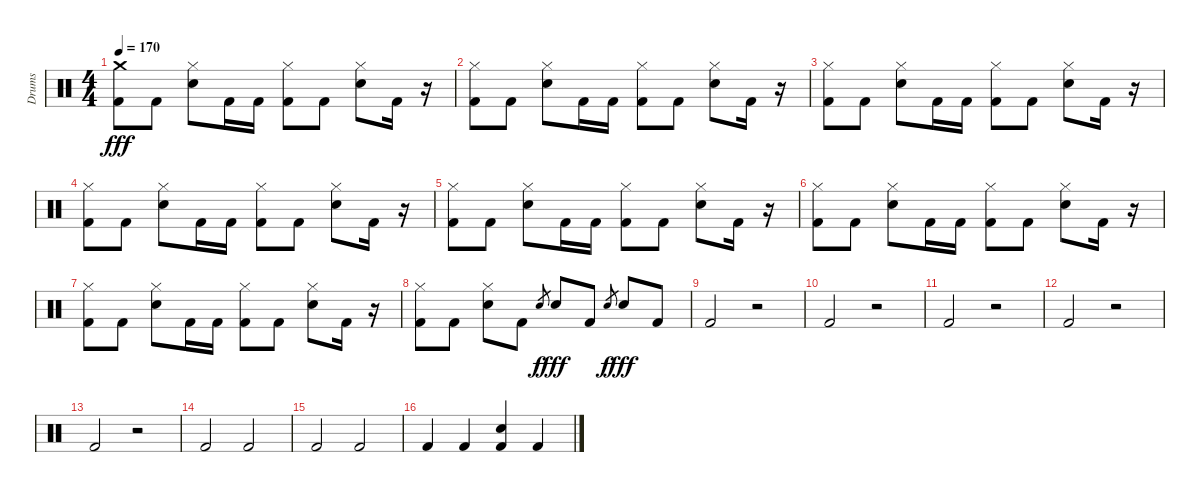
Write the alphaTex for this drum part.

\track ("Drums" "Drums") {instrument percussion}
\staff {score}
\articulation defaults
\ts (4 4)
\tempo 170
\clef neutral
\ks c
("Crash medium (hit)" "Kick (hit) 2").8{dy fff} "Kick (hit) 2".8 ("Hi-Hat (closed)" "Snare (hit) 2").8 "Kick (hit) 2".16 "Kick (hit) 2".16 ("Hi-Hat (closed)" "Kick (hit) 2").8 "Kick (hit) 2".8 ("Hi-Hat (closed)" "Snare (hit) 2").8 "Kick (hit) 2".16 r.16 |
("Hi-Hat (closed)" "Kick (hit) 2").8 "Kick (hit) 2".8 ("Hi-Hat (closed)" "Snare (hit) 2").8 "Kick (hit) 2".16 "Kick (hit) 2".16 ("Hi-Hat (closed)" "Kick (hit) 2").8 "Kick (hit) 2".8 ("Hi-Hat (closed)" "Snare (hit) 2").8 "Kick (hit) 2".16 r.16 |
("Hi-Hat (closed)" "Kick (hit) 2").8 "Kick (hit) 2".8 ("Hi-Hat (closed)" "Snare (hit) 2").8 "Kick (hit) 2".16 "Kick (hit) 2".16 ("Hi-Hat (closed)" "Kick (hit) 2").8 "Kick (hit) 2".8 ("Hi-Hat (closed)" "Snare (hit) 2").8 "Kick (hit) 2".16 r.16 |
("Hi-Hat (closed)" "Kick (hit) 2").8 "Kick (hit) 2".8 ("Hi-Hat (closed)" "Snare (hit) 2").8 "Kick (hit) 2".16 "Kick (hit) 2".16 ("Hi-Hat (closed)" "Kick (hit) 2").8 "Kick (hit) 2".8 ("Hi-Hat (closed)" "Snare (hit) 2").8 "Kick (hit) 2".16 r.16 |
("Hi-Hat (closed)" "Kick (hit) 2").8 "Kick (hit) 2".8 ("Hi-Hat (closed)" "Snare (hit) 2").8 "Kick (hit) 2".16 "Kick (hit) 2".16 ("Hi-Hat (closed)" "Kick (hit) 2").8 "Kick (hit) 2".8 ("Hi-Hat (closed)" "Snare (hit) 2").8 "Kick (hit) 2".16 r.16 |
("Hi-Hat (closed)" "Kick (hit) 2").8 "Kick (hit) 2".8 ("Hi-Hat (closed)" "Snare (hit) 2").8 "Kick (hit) 2".16 "Kick (hit) 2".16 ("Hi-Hat (closed)" "Kick (hit) 2").8 "Kick (hit) 2".8 ("Hi-Hat (closed)" "Snare (hit) 2").8 "Kick (hit) 2".16 r.16 |
("Hi-Hat (closed)" "Kick (hit) 2").8 "Kick (hit) 2".8 ("Hi-Hat (closed)" "Snare (hit) 2").8 "Kick (hit) 2".16 "Kick (hit) 2".16 ("Hi-Hat (closed)" "Kick (hit) 2").8 "Kick (hit) 2".8 ("Hi-Hat (closed)" "Snare (hit) 2").8 "Kick (hit) 2".16 r.16 |
("Hi-Hat (closed)" "Kick (hit) 2").8 "Kick (hit) 2".8 ("Hi-Hat (closed)" "Snare (hit) 2").8 "Kick (hit) 2".8 "Snare (hit) 2".8{gr dy f} "Snare (hit) 2".8{dy fff} "Kick (hit) 2".8 "Snare (hit) 2".8{gr dy f} "Snare (hit) 2".8{dy fff} "Kick (hit) 2".8 |
"Kick (hit) 2".2 r.2 |
"Kick (hit) 2".2 r.2 |
"Kick (hit) 2".2 r.2 |
"Kick (hit) 2".2 r.2 |
"Kick (hit) 2".2 r.2 |
"Kick (hit) 2".2 "Kick (hit) 2".2 |
"Kick (hit) 2".2 "Kick (hit) 2".2 |
"Kick (hit) 2".4 "Kick (hit) 2".4 ("Electric Snare (hit)" "Kick (hit) 2").4 "Kick (hit) 2".4
